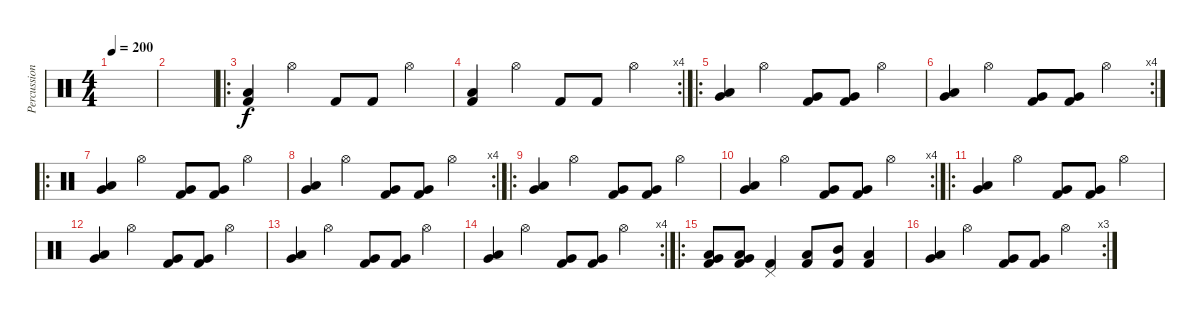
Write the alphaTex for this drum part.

\track ("Percussion" "Percussion") {instrument percussion}
\staff {score}
\articulation defaults
\ts (4 4)
\tempo 200
\clef neutral
\ks c
|
|
\ro
("Low Floor Tom (hit)" "Kick (hit) 2").4 "Hi-Hat (open)".4 "Kick (hit) 2".8 "Kick (hit) 2".8 "Hi-Hat (open)".4 |
\rc 4
("Low Floor Tom (hit)" "Kick (hit) 2").4 "Hi-Hat (open)".4 "Kick (hit) 2".8 "Kick (hit) 2".8 "Hi-Hat (open)".4 |
\ro
("Very Low Tom (hit)" "Low Floor Tom (hit)").4 "Hi-Hat (open)".4 ("Very Low Tom (hit)" "Kick (hit) 2").8 ("Very Low Tom (hit)" "Kick (hit) 2").8 "Hi-Hat (open)".4 |
\rc 4
("Very Low Tom (hit)" "Low Floor Tom (hit)").4 "Hi-Hat (open)".4 ("Very Low Tom (hit)" "Kick (hit) 2").8 ("Very Low Tom (hit)" "Kick (hit) 2").8 "Hi-Hat (open)".4 |
\ro
("Very Low Tom (hit)" "Low Floor Tom (hit)").4 "Hi-Hat (open)".4 ("Very Low Tom (hit)" "Kick (hit) 2").8 ("Very Low Tom (hit)" "Kick (hit) 2").8 "Hi-Hat (open)".4 |
\rc 4
("Very Low Tom (hit)" "Low Floor Tom (hit)").4 "Hi-Hat (open)".4 ("Very Low Tom (hit)" "Kick (hit) 2").8 ("Very Low Tom (hit)" "Kick (hit) 2").8 "Hi-Hat (open)".4 |
\ro
("Very Low Tom (hit)" "Low Floor Tom (hit)").4 "Hi-Hat (open)".4 ("Very Low Tom (hit)" "Kick (hit) 2").8 ("Very Low Tom (hit)" "Kick (hit) 2").8 "Hi-Hat (open)".4 |
\rc 4
("Very Low Tom (hit)" "Low Floor Tom (hit)").4 "Hi-Hat (open)".4 ("Very Low Tom (hit)" "Kick (hit) 2").8 ("Very Low Tom (hit)" "Kick (hit) 2").8 "Hi-Hat (open)".4 |
\ro
("Very Low Tom (hit)" "Low Floor Tom (hit)").4 "Hi-Hat (open)".4 ("Very Low Tom (hit)" "Kick (hit) 2").8 ("Very Low Tom (hit)" "Kick (hit) 2").8 "Hi-Hat (open)".4 |
("Very Low Tom (hit)" "Low Floor Tom (hit)").4 "Hi-Hat (open)".4 ("Very Low Tom (hit)" "Kick (hit) 2").8 ("Very Low Tom (hit)" "Kick (hit) 2").8 "Hi-Hat (open)".4 |
("Very Low Tom (hit)" "Low Floor Tom (hit)").4 "Hi-Hat (open)".4 ("Very Low Tom (hit)" "Kick (hit) 2").8 ("Very Low Tom (hit)" "Kick (hit) 2").8 "Hi-Hat (open)".4 |
\rc 4
("Very Low Tom (hit)" "Low Floor Tom (hit)").4 "Hi-Hat (open)".4 ("Very Low Tom (hit)" "Kick (hit) 2").8 ("Very Low Tom (hit)" "Kick (hit) 2").8 "Hi-Hat (open)".4 |
\ro
("Very Low Tom (hit)" "Low Floor Tom (hit)" "Kick (hit) 2").8 ("Very Low Tom (hit)" "Low Floor Tom (hit)" "Kick (hit) 2").8 ("Pedal Hi-Hat (hit)" "Kick (hit) 2").4 ("Low Tom (hit)" "Kick (hit) 2").8 ("Mid Tom (hit)" "Kick (hit) 2").8 ("Low Tom (hit)" "Kick (hit) 2").4 |
\rc 3
("Very Low Tom (hit)" "Low Floor Tom (hit)").4 "Hi-Hat (open)".4 ("Very Low Tom (hit)" "Kick (hit) 2").8 ("Very Low Tom (hit)" "Kick (hit) 2").8 "Hi-Hat (open)".4
